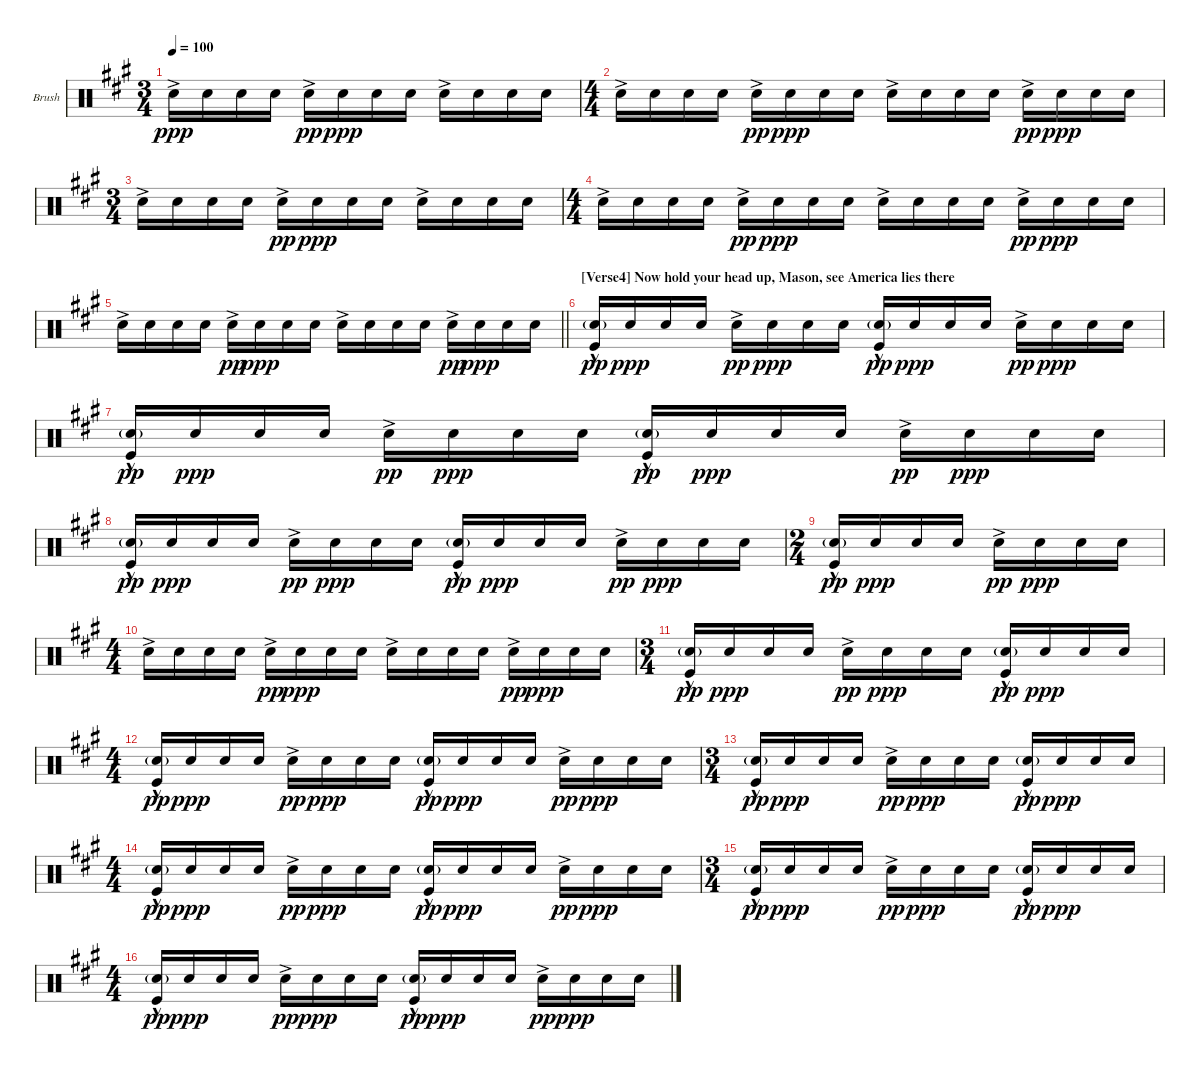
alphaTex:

\bracketExtendMode groupsimilarinstruments
\firstSystemTrackNameOrientation horizontal
\otherSystemsTrackNameOrientation horizontal
\track ("Brush Snare" "Brush") {instrument percussion}
\staff {score}
\articulation defaults
\ts (3 4)
\tempo 100
\clef neutral
\ks f#minor "Snare (hit) 2"{ac}.16{dy ppp} "Snare (hit) 2".16 "Snare (hit) 2".16 "Snare (hit) 2".16 "Snare (hit) 2"{ac}.16{dy pp} "Snare (hit) 2".16{dy ppp} "Snare (hit) 2".16 "Snare (hit) 2".16 "Snare (hit) 2"{ac}.16 "Snare (hit) 2".16 "Snare (hit) 2".16 "Snare (hit) 2".16
|
\ts (4 4)
"Snare (hit) 2"{ac}.16 "Snare (hit) 2".16 "Snare (hit) 2".16 "Snare (hit) 2".16 "Snare (hit) 2"{ac}.16{dy pp} "Snare (hit) 2".16{dy ppp} "Snare (hit) 2".16 "Snare (hit) 2".16 "Snare (hit) 2"{ac}.16 "Snare (hit) 2".16 "Snare (hit) 2".16 "Snare (hit) 2".16 "Snare (hit) 2"{ac}.16{dy pp} "Snare (hit) 2".16{dy ppp} "Snare (hit) 2".16 "Snare (hit) 2".16 |
\ts (3 4)
"Snare (hit) 2"{ac}.16 "Snare (hit) 2".16 "Snare (hit) 2".16 "Snare (hit) 2".16 "Snare (hit) 2"{ac}.16{dy pp} "Snare (hit) 2".16{dy ppp} "Snare (hit) 2".16 "Snare (hit) 2".16 "Snare (hit) 2"{ac}.16 "Snare (hit) 2".16 "Snare (hit) 2".16 "Snare (hit) 2".16 |
\ts (4 4)
"Snare (hit) 2"{ac}.16 "Snare (hit) 2".16 "Snare (hit) 2".16 "Snare (hit) 2".16 "Snare (hit) 2"{ac}.16{dy pp} "Snare (hit) 2".16{dy ppp} "Snare (hit) 2".16 "Snare (hit) 2".16 "Snare (hit) 2"{ac}.16 "Snare (hit) 2".16 "Snare (hit) 2".16 "Snare (hit) 2".16 "Snare (hit) 2"{ac}.16{dy pp} "Snare (hit) 2".16{dy ppp} "Snare (hit) 2".16 "Snare (hit) 2".16 |
\barLineRight lightlight "Snare (hit) 2"{ac}.16 "Snare (hit) 2".16 "Snare (hit) 2".16 "Snare (hit) 2".16 "Snare (hit) 2"{ac}.16{dy pp} "Snare (hit) 2".16{dy ppp} "Snare (hit) 2".16 "Snare (hit) 2".16 "Snare (hit) 2"{ac}.16 "Snare (hit) 2".16 "Snare (hit) 2".16 "Snare (hit) 2".16 "Snare (hit) 2"{ac}.16{dy pp} "Snare (hit) 2".16{dy ppp} "Snare (hit) 2".16 "Snare (hit) 2".16
|
\section ("" "[Verse4] Now hold your head up, Mason, see America lies there")
("Snare (hit) 2"{g} "Kick (hit)"{hac}).16{dy pp} "Snare (hit) 2".16{dy ppp} "Snare (hit) 2".16 "Snare (hit) 2".16 "Snare (hit) 2"{ac}.16{dy pp} "Snare (hit) 2".16{dy ppp} "Snare (hit) 2".16 "Snare (hit) 2".16 ("Snare (hit) 2"{g} "Kick (hit)"{hac}).16{dy pp} "Snare (hit) 2".16{dy ppp} "Snare (hit) 2".16 "Snare (hit) 2".16 "Snare (hit) 2"{ac}.16{dy pp} "Snare (hit) 2".16{dy ppp} "Snare (hit) 2".16 "Snare (hit) 2".16 |
("Snare (hit) 2"{g} "Kick (hit)"{hac}).16{dy pp} "Snare (hit) 2".16{dy ppp} "Snare (hit) 2".16 "Snare (hit) 2".16 "Snare (hit) 2"{ac}.16{dy pp} "Snare (hit) 2".16{dy ppp} "Snare (hit) 2".16 "Snare (hit) 2".16 ("Snare (hit) 2"{g} "Kick (hit)"{hac}).16{dy pp} "Snare (hit) 2".16{dy ppp} "Snare (hit) 2".16 "Snare (hit) 2".16 "Snare (hit) 2"{ac}.16{dy pp} "Snare (hit) 2".16{dy ppp} "Snare (hit) 2".16 "Snare (hit) 2".16 |
("Snare (hit) 2"{g} "Kick (hit)"{hac}).16{dy pp} "Snare (hit) 2".16{dy ppp} "Snare (hit) 2".16 "Snare (hit) 2".16 "Snare (hit) 2"{ac}.16{dy pp} "Snare (hit) 2".16{dy ppp} "Snare (hit) 2".16 "Snare (hit) 2".16 ("Snare (hit) 2"{g} "Kick (hit)"{hac}).16{dy pp} "Snare (hit) 2".16{dy ppp} "Snare (hit) 2".16 "Snare (hit) 2".16 "Snare (hit) 2"{ac}.16{dy pp} "Snare (hit) 2".16{dy ppp} "Snare (hit) 2".16 "Snare (hit) 2".16 |
\ts (2 4)
("Snare (hit) 2"{g} "Kick (hit)"{hac}).16{dy pp} "Snare (hit) 2".16{dy ppp} "Snare (hit) 2".16 "Snare (hit) 2".16 "Snare (hit) 2"{ac}.16{dy pp} "Snare (hit) 2".16{dy ppp} "Snare (hit) 2".16 "Snare (hit) 2".16 |
\ts (4 4)
"Snare (hit) 2"{ac}.16 "Snare (hit) 2".16 "Snare (hit) 2".16 "Snare (hit) 2".16 "Snare (hit) 2"{ac}.16{dy pp} "Snare (hit) 2".16{dy ppp} "Snare (hit) 2".16 "Snare (hit) 2".16 "Snare (hit) 2"{ac}.16 "Snare (hit) 2".16 "Snare (hit) 2".16 "Snare (hit) 2".16 "Snare (hit) 2"{ac}.16{dy pp} "Snare (hit) 2".16{dy ppp} "Snare (hit) 2".16 "Snare (hit) 2".16 |
\ts (3 4)
("Snare (hit) 2"{g} "Kick (hit)"{hac}).16{dy pp} "Snare (hit) 2".16{dy ppp} "Snare (hit) 2".16 "Snare (hit) 2".16 "Snare (hit) 2"{ac}.16{dy pp} "Snare (hit) 2".16{dy ppp} "Snare (hit) 2".16 "Snare (hit) 2".16 ("Snare (hit) 2"{g} "Kick (hit)"{hac}).16{dy pp} "Snare (hit) 2".16{dy ppp} "Snare (hit) 2".16 "Snare (hit) 2".16 |
\ts (4 4)
("Snare (hit) 2"{g} "Kick (hit)"{hac}).16{dy pp} "Snare (hit) 2".16{dy ppp} "Snare (hit) 2".16 "Snare (hit) 2".16 "Snare (hit) 2"{ac}.16{dy pp} "Snare (hit) 2".16{dy ppp} "Snare (hit) 2".16 "Snare (hit) 2".16 ("Snare (hit) 2"{g} "Kick (hit)"{hac}).16{dy pp} "Snare (hit) 2".16{dy ppp} "Snare (hit) 2".16 "Snare (hit) 2".16 "Snare (hit) 2"{ac}.16{dy pp} "Snare (hit) 2".16{dy ppp} "Snare (hit) 2".16 "Snare (hit) 2".16 |
\ts (3 4)
("Snare (hit) 2"{g} "Kick (hit)"{hac}).16{dy pp} "Snare (hit) 2".16{dy ppp} "Snare (hit) 2".16 "Snare (hit) 2".16 "Snare (hit) 2"{ac}.16{dy pp} "Snare (hit) 2".16{dy ppp} "Snare (hit) 2".16 "Snare (hit) 2".16 ("Snare (hit) 2"{g} "Kick (hit)"{hac}).16{dy pp} "Snare (hit) 2".16{dy ppp} "Snare (hit) 2".16 "Snare (hit) 2".16 |
\ts (4 4)
("Snare (hit) 2"{g} "Kick (hit)"{hac}).16{dy pp} "Snare (hit) 2".16{dy ppp} "Snare (hit) 2".16 "Snare (hit) 2".16 "Snare (hit) 2"{ac}.16{dy pp} "Snare (hit) 2".16{dy ppp} "Snare (hit) 2".16 "Snare (hit) 2".16 ("Snare (hit) 2"{g} "Kick (hit)"{hac}).16{dy pp} "Snare (hit) 2".16{dy ppp} "Snare (hit) 2".16 "Snare (hit) 2".16 "Snare (hit) 2"{ac}.16{dy pp} "Snare (hit) 2".16{dy ppp} "Snare (hit) 2".16 "Snare (hit) 2".16 |
\ts (3 4)
("Snare (hit) 2"{g} "Kick (hit)"{hac}).16{dy pp} "Snare (hit) 2".16{dy ppp} "Snare (hit) 2".16 "Snare (hit) 2".16 "Snare (hit) 2"{ac}.16{dy pp} "Snare (hit) 2".16{dy ppp} "Snare (hit) 2".16 "Snare (hit) 2".16 ("Snare (hit) 2"{g} "Kick (hit)"{hac}).16{dy pp} "Snare (hit) 2".16{dy ppp} "Snare (hit) 2".16 "Snare (hit) 2".16 |
\ts (4 4)
("Snare (hit) 2"{g} "Kick (hit)"{hac}).16{dy pp} "Snare (hit) 2".16{dy ppp} "Snare (hit) 2".16 "Snare (hit) 2".16 "Snare (hit) 2"{ac}.16{dy pp} "Snare (hit) 2".16{dy ppp} "Snare (hit) 2".16 "Snare (hit) 2".16 ("Snare (hit) 2"{g} "Kick (hit)"{hac}).16{dy pp} "Snare (hit) 2".16{dy ppp} "Snare (hit) 2".16 "Snare (hit) 2".16 "Snare (hit) 2"{ac}.16{dy pp} "Snare (hit) 2".16{dy ppp} "Snare (hit) 2".16 "Snare (hit) 2".16
